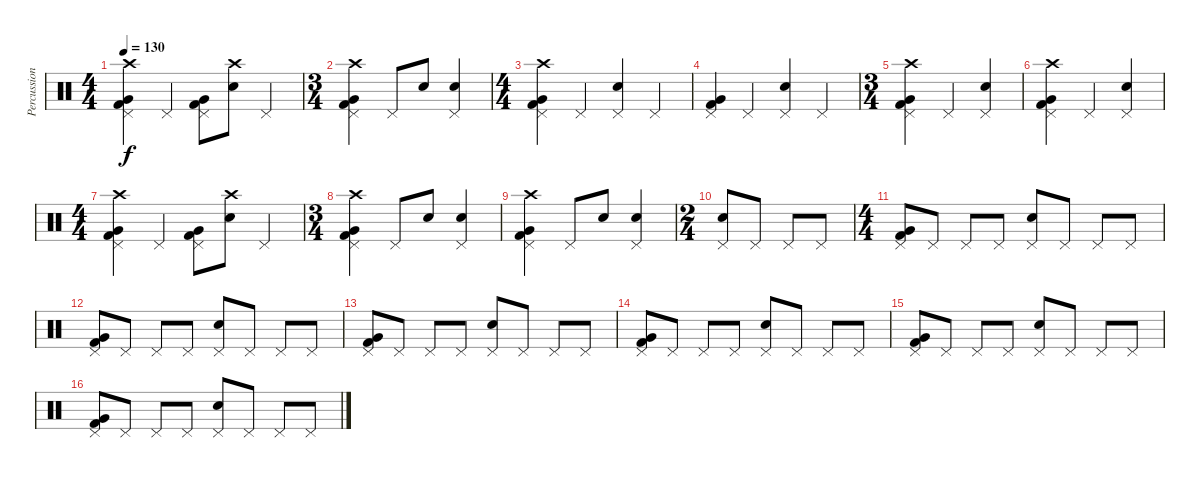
\track ("Percussion" "Percussion") {instrument percussion}
\staff {score}
\articulation defaults
\ts (4 4)
\tempo 130
\clef neutral
\ks c
("Crash high (hit)" "Pedal Hi-Hat (hit)" "Very Low Tom (hit)" "Kick (hit) 2").4{dy f} "Pedal Hi-Hat (hit)".4 ("Pedal Hi-Hat (hit)" "Very Low Tom (hit)" "Kick (hit) 2").8 ("Crash high (hit)" "Electric Snare (hit)").8 "Pedal Hi-Hat (hit)".4 |
\ts (3 4)
("Crash high (hit)" "Pedal Hi-Hat (hit)" "Very Low Tom (hit)" "Kick (hit) 2").4 "Pedal Hi-Hat (hit)".8 "Electric Snare (hit)".8 ("Pedal Hi-Hat (hit)" "Electric Snare (hit)").4 |
\ts (4 4)
("Crash high (hit)" "Pedal Hi-Hat (hit)" "Very Low Tom (hit)" "Kick (hit) 2").4 "Pedal Hi-Hat (hit)".4 ("Pedal Hi-Hat (hit)" "Electric Snare (hit)").4 "Pedal Hi-Hat (hit)".4 |
("Pedal Hi-Hat (hit)" "Very Low Tom (hit)" "Kick (hit) 2").4 "Pedal Hi-Hat (hit)".4 ("Pedal Hi-Hat (hit)" "Electric Snare (hit)").4 "Pedal Hi-Hat (hit)".4 |
\ts (3 4)
("Crash high (hit)" "Pedal Hi-Hat (hit)" "Very Low Tom (hit)" "Kick (hit) 2").4 "Pedal Hi-Hat (hit)".4 ("Pedal Hi-Hat (hit)" "Electric Snare (hit)").4 |
("Crash high (hit)" "Pedal Hi-Hat (hit)" "Very Low Tom (hit)" "Kick (hit) 2").4 "Pedal Hi-Hat (hit)".4 ("Pedal Hi-Hat (hit)" "Electric Snare (hit)").4 |
\ts (4 4)
("Crash high (hit)" "Pedal Hi-Hat (hit)" "Very Low Tom (hit)" "Kick (hit) 2").4 "Pedal Hi-Hat (hit)".4 ("Pedal Hi-Hat (hit)" "Very Low Tom (hit)" "Kick (hit) 2").8 ("Crash high (hit)" "Electric Snare (hit)").8 "Pedal Hi-Hat (hit)".4 |
\ts (3 4)
("Crash high (hit)" "Pedal Hi-Hat (hit)" "Very Low Tom (hit)" "Kick (hit) 2").4 "Pedal Hi-Hat (hit)".8 "Electric Snare (hit)".8 ("Pedal Hi-Hat (hit)" "Electric Snare (hit)").4 |
("Crash high (hit)" "Pedal Hi-Hat (hit)" "Very Low Tom (hit)" "Kick (hit) 2").4 "Pedal Hi-Hat (hit)".8 "Electric Snare (hit)".8 ("Pedal Hi-Hat (hit)" "Electric Snare (hit)").4 |
\ts (2 4)
("Pedal Hi-Hat (hit)" "Electric Snare (hit)").8 "Pedal Hi-Hat (hit)".8 "Pedal Hi-Hat (hit)".8 "Pedal Hi-Hat (hit)".8 |
\ts (4 4)
("Pedal Hi-Hat (hit)" "Very Low Tom (hit)" "Kick (hit) 2").8 "Pedal Hi-Hat (hit)".8 "Pedal Hi-Hat (hit)".8 "Pedal Hi-Hat (hit)".8 ("Pedal Hi-Hat (hit)" "Electric Snare (hit)").8 "Pedal Hi-Hat (hit)".8 "Pedal Hi-Hat (hit)".8 "Pedal Hi-Hat (hit)".8 |
("Pedal Hi-Hat (hit)" "Very Low Tom (hit)" "Kick (hit) 2").8 "Pedal Hi-Hat (hit)".8 "Pedal Hi-Hat (hit)".8 "Pedal Hi-Hat (hit)".8 ("Pedal Hi-Hat (hit)" "Electric Snare (hit)").8 "Pedal Hi-Hat (hit)".8 "Pedal Hi-Hat (hit)".8 "Pedal Hi-Hat (hit)".8 |
("Pedal Hi-Hat (hit)" "Very Low Tom (hit)" "Kick (hit) 2").8 "Pedal Hi-Hat (hit)".8 "Pedal Hi-Hat (hit)".8 "Pedal Hi-Hat (hit)".8 ("Pedal Hi-Hat (hit)" "Electric Snare (hit)").8 "Pedal Hi-Hat (hit)".8 "Pedal Hi-Hat (hit)".8 "Pedal Hi-Hat (hit)".8 |
("Pedal Hi-Hat (hit)" "Very Low Tom (hit)" "Kick (hit) 2").8 "Pedal Hi-Hat (hit)".8 "Pedal Hi-Hat (hit)".8 "Pedal Hi-Hat (hit)".8 ("Pedal Hi-Hat (hit)" "Electric Snare (hit)").8 "Pedal Hi-Hat (hit)".8 "Pedal Hi-Hat (hit)".8 "Pedal Hi-Hat (hit)".8 |
("Pedal Hi-Hat (hit)" "Very Low Tom (hit)" "Kick (hit) 2").8 "Pedal Hi-Hat (hit)".8 "Pedal Hi-Hat (hit)".8 "Pedal Hi-Hat (hit)".8 ("Pedal Hi-Hat (hit)" "Electric Snare (hit)").8 "Pedal Hi-Hat (hit)".8 "Pedal Hi-Hat (hit)".8 "Pedal Hi-Hat (hit)".8 |
("Pedal Hi-Hat (hit)" "Very Low Tom (hit)" "Kick (hit) 2").8 "Pedal Hi-Hat (hit)".8 "Pedal Hi-Hat (hit)".8 "Pedal Hi-Hat (hit)".8 ("Pedal Hi-Hat (hit)" "Electric Snare (hit)").8 "Pedal Hi-Hat (hit)".8 "Pedal Hi-Hat (hit)".8 "Pedal Hi-Hat (hit)".8
